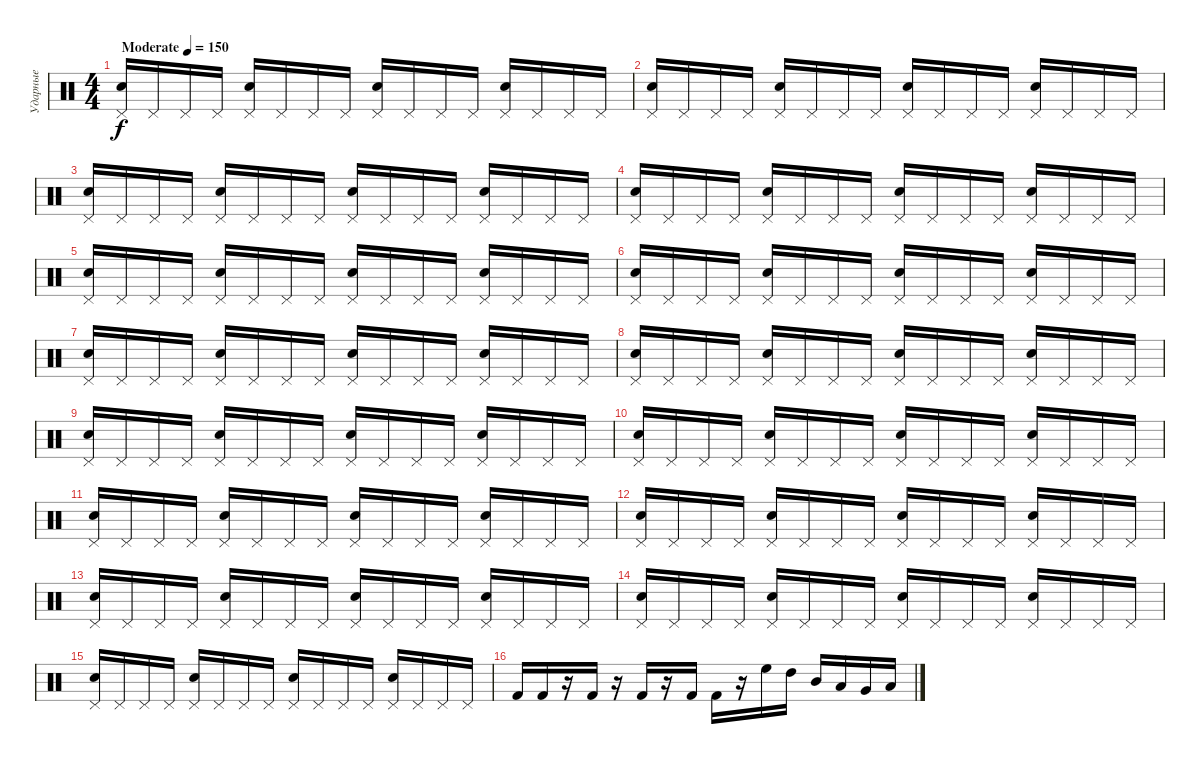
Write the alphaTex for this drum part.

\track ("Ударные" "Ударные") {instrument percussion}
\staff {score}
\articulation defaults
\ts (4 4)
\tempo (150 "Moderate")
\clef neutral
\ks c
("Pedal Hi-Hat (hit)" "Electric Snare (hit)").16{dy f} "Pedal Hi-Hat (hit)".16 "Pedal Hi-Hat (hit)".16 "Pedal Hi-Hat (hit)".16 ("Pedal Hi-Hat (hit)" "Electric Snare (hit)").16 "Pedal Hi-Hat (hit)".16 "Pedal Hi-Hat (hit)".16 "Pedal Hi-Hat (hit)".16 ("Pedal Hi-Hat (hit)" "Electric Snare (hit)").16 "Pedal Hi-Hat (hit)".16 "Pedal Hi-Hat (hit)".16 "Pedal Hi-Hat (hit)".16 ("Pedal Hi-Hat (hit)" "Electric Snare (hit)").16 "Pedal Hi-Hat (hit)".16 "Pedal Hi-Hat (hit)".16 "Pedal Hi-Hat (hit)".16 |
("Pedal Hi-Hat (hit)" "Electric Snare (hit)").16 "Pedal Hi-Hat (hit)".16 "Pedal Hi-Hat (hit)".16 "Pedal Hi-Hat (hit)".16 ("Pedal Hi-Hat (hit)" "Electric Snare (hit)").16 "Pedal Hi-Hat (hit)".16 "Pedal Hi-Hat (hit)".16 "Pedal Hi-Hat (hit)".16 ("Pedal Hi-Hat (hit)" "Electric Snare (hit)").16 "Pedal Hi-Hat (hit)".16 "Pedal Hi-Hat (hit)".16 "Pedal Hi-Hat (hit)".16 ("Pedal Hi-Hat (hit)" "Electric Snare (hit)").16 "Pedal Hi-Hat (hit)".16 "Pedal Hi-Hat (hit)".16 "Pedal Hi-Hat (hit)".16 |
("Pedal Hi-Hat (hit)" "Electric Snare (hit)").16 "Pedal Hi-Hat (hit)".16 "Pedal Hi-Hat (hit)".16 "Pedal Hi-Hat (hit)".16 ("Pedal Hi-Hat (hit)" "Electric Snare (hit)").16 "Pedal Hi-Hat (hit)".16 "Pedal Hi-Hat (hit)".16 "Pedal Hi-Hat (hit)".16 ("Pedal Hi-Hat (hit)" "Electric Snare (hit)").16 "Pedal Hi-Hat (hit)".16 "Pedal Hi-Hat (hit)".16 "Pedal Hi-Hat (hit)".16 ("Pedal Hi-Hat (hit)" "Electric Snare (hit)").16 "Pedal Hi-Hat (hit)".16 "Pedal Hi-Hat (hit)".16 "Pedal Hi-Hat (hit)".16 |
("Pedal Hi-Hat (hit)" "Electric Snare (hit)").16 "Pedal Hi-Hat (hit)".16 "Pedal Hi-Hat (hit)".16 "Pedal Hi-Hat (hit)".16 ("Pedal Hi-Hat (hit)" "Electric Snare (hit)").16 "Pedal Hi-Hat (hit)".16 "Pedal Hi-Hat (hit)".16 "Pedal Hi-Hat (hit)".16 ("Pedal Hi-Hat (hit)" "Electric Snare (hit)").16 "Pedal Hi-Hat (hit)".16 "Pedal Hi-Hat (hit)".16 "Pedal Hi-Hat (hit)".16 ("Pedal Hi-Hat (hit)" "Electric Snare (hit)").16 "Pedal Hi-Hat (hit)".16 "Pedal Hi-Hat (hit)".16 "Pedal Hi-Hat (hit)".16 |
("Pedal Hi-Hat (hit)" "Electric Snare (hit)").16 "Pedal Hi-Hat (hit)".16 "Pedal Hi-Hat (hit)".16 "Pedal Hi-Hat (hit)".16 ("Pedal Hi-Hat (hit)" "Electric Snare (hit)").16 "Pedal Hi-Hat (hit)".16 "Pedal Hi-Hat (hit)".16 "Pedal Hi-Hat (hit)".16 ("Pedal Hi-Hat (hit)" "Electric Snare (hit)").16 "Pedal Hi-Hat (hit)".16 "Pedal Hi-Hat (hit)".16 "Pedal Hi-Hat (hit)".16 ("Pedal Hi-Hat (hit)" "Electric Snare (hit)").16 "Pedal Hi-Hat (hit)".16 "Pedal Hi-Hat (hit)".16 "Pedal Hi-Hat (hit)".16 |
("Pedal Hi-Hat (hit)" "Electric Snare (hit)").16 "Pedal Hi-Hat (hit)".16 "Pedal Hi-Hat (hit)".16 "Pedal Hi-Hat (hit)".16 ("Pedal Hi-Hat (hit)" "Electric Snare (hit)").16 "Pedal Hi-Hat (hit)".16 "Pedal Hi-Hat (hit)".16 "Pedal Hi-Hat (hit)".16 ("Pedal Hi-Hat (hit)" "Electric Snare (hit)").16 "Pedal Hi-Hat (hit)".16 "Pedal Hi-Hat (hit)".16 "Pedal Hi-Hat (hit)".16 ("Pedal Hi-Hat (hit)" "Electric Snare (hit)").16 "Pedal Hi-Hat (hit)".16 "Pedal Hi-Hat (hit)".16 "Pedal Hi-Hat (hit)".16 |
("Pedal Hi-Hat (hit)" "Electric Snare (hit)").16 "Pedal Hi-Hat (hit)".16 "Pedal Hi-Hat (hit)".16 "Pedal Hi-Hat (hit)".16 ("Pedal Hi-Hat (hit)" "Electric Snare (hit)").16 "Pedal Hi-Hat (hit)".16 "Pedal Hi-Hat (hit)".16 "Pedal Hi-Hat (hit)".16 ("Pedal Hi-Hat (hit)" "Electric Snare (hit)").16 "Pedal Hi-Hat (hit)".16 "Pedal Hi-Hat (hit)".16 "Pedal Hi-Hat (hit)".16 ("Pedal Hi-Hat (hit)" "Electric Snare (hit)").16 "Pedal Hi-Hat (hit)".16 "Pedal Hi-Hat (hit)".16 "Pedal Hi-Hat (hit)".16 |
("Pedal Hi-Hat (hit)" "Electric Snare (hit)").16 "Pedal Hi-Hat (hit)".16 "Pedal Hi-Hat (hit)".16 "Pedal Hi-Hat (hit)".16 ("Pedal Hi-Hat (hit)" "Electric Snare (hit)").16 "Pedal Hi-Hat (hit)".16 "Pedal Hi-Hat (hit)".16 "Pedal Hi-Hat (hit)".16 ("Pedal Hi-Hat (hit)" "Electric Snare (hit)").16 "Pedal Hi-Hat (hit)".16 "Pedal Hi-Hat (hit)".16 "Pedal Hi-Hat (hit)".16 ("Pedal Hi-Hat (hit)" "Electric Snare (hit)").16 "Pedal Hi-Hat (hit)".16 "Pedal Hi-Hat (hit)".16 "Pedal Hi-Hat (hit)".16 |
("Pedal Hi-Hat (hit)" "Electric Snare (hit)").16 "Pedal Hi-Hat (hit)".16 "Pedal Hi-Hat (hit)".16 "Pedal Hi-Hat (hit)".16 ("Pedal Hi-Hat (hit)" "Electric Snare (hit)").16 "Pedal Hi-Hat (hit)".16 "Pedal Hi-Hat (hit)".16 "Pedal Hi-Hat (hit)".16 ("Pedal Hi-Hat (hit)" "Electric Snare (hit)").16 "Pedal Hi-Hat (hit)".16 "Pedal Hi-Hat (hit)".16 "Pedal Hi-Hat (hit)".16 ("Pedal Hi-Hat (hit)" "Electric Snare (hit)").16 "Pedal Hi-Hat (hit)".16 "Pedal Hi-Hat (hit)".16 "Pedal Hi-Hat (hit)".16 |
("Pedal Hi-Hat (hit)" "Electric Snare (hit)").16 "Pedal Hi-Hat (hit)".16 "Pedal Hi-Hat (hit)".16 "Pedal Hi-Hat (hit)".16 ("Pedal Hi-Hat (hit)" "Electric Snare (hit)").16 "Pedal Hi-Hat (hit)".16 "Pedal Hi-Hat (hit)".16 "Pedal Hi-Hat (hit)".16 ("Pedal Hi-Hat (hit)" "Electric Snare (hit)").16 "Pedal Hi-Hat (hit)".16 "Pedal Hi-Hat (hit)".16 "Pedal Hi-Hat (hit)".16 ("Pedal Hi-Hat (hit)" "Electric Snare (hit)").16 "Pedal Hi-Hat (hit)".16 "Pedal Hi-Hat (hit)".16 "Pedal Hi-Hat (hit)".16 |
("Pedal Hi-Hat (hit)" "Electric Snare (hit)").16 "Pedal Hi-Hat (hit)".16 "Pedal Hi-Hat (hit)".16 "Pedal Hi-Hat (hit)".16 ("Pedal Hi-Hat (hit)" "Electric Snare (hit)").16 "Pedal Hi-Hat (hit)".16 "Pedal Hi-Hat (hit)".16 "Pedal Hi-Hat (hit)".16 ("Pedal Hi-Hat (hit)" "Electric Snare (hit)").16 "Pedal Hi-Hat (hit)".16 "Pedal Hi-Hat (hit)".16 "Pedal Hi-Hat (hit)".16 ("Pedal Hi-Hat (hit)" "Electric Snare (hit)").16 "Pedal Hi-Hat (hit)".16 "Pedal Hi-Hat (hit)".16 "Pedal Hi-Hat (hit)".16 |
("Pedal Hi-Hat (hit)" "Electric Snare (hit)").16 "Pedal Hi-Hat (hit)".16 "Pedal Hi-Hat (hit)".16 "Pedal Hi-Hat (hit)".16 ("Pedal Hi-Hat (hit)" "Electric Snare (hit)").16 "Pedal Hi-Hat (hit)".16 "Pedal Hi-Hat (hit)".16 "Pedal Hi-Hat (hit)".16 ("Pedal Hi-Hat (hit)" "Electric Snare (hit)").16 "Pedal Hi-Hat (hit)".16 "Pedal Hi-Hat (hit)".16 "Pedal Hi-Hat (hit)".16 ("Pedal Hi-Hat (hit)" "Electric Snare (hit)").16 "Pedal Hi-Hat (hit)".16 "Pedal Hi-Hat (hit)".16 "Pedal Hi-Hat (hit)".16 |
("Pedal Hi-Hat (hit)" "Electric Snare (hit)").16 "Pedal Hi-Hat (hit)".16 "Pedal Hi-Hat (hit)".16 "Pedal Hi-Hat (hit)".16 ("Pedal Hi-Hat (hit)" "Electric Snare (hit)").16 "Pedal Hi-Hat (hit)".16 "Pedal Hi-Hat (hit)".16 "Pedal Hi-Hat (hit)".16 ("Pedal Hi-Hat (hit)" "Electric Snare (hit)").16 "Pedal Hi-Hat (hit)".16 "Pedal Hi-Hat (hit)".16 "Pedal Hi-Hat (hit)".16 ("Pedal Hi-Hat (hit)" "Electric Snare (hit)").16 "Pedal Hi-Hat (hit)".16 "Pedal Hi-Hat (hit)".16 "Pedal Hi-Hat (hit)".16 |
("Pedal Hi-Hat (hit)" "Electric Snare (hit)").16 "Pedal Hi-Hat (hit)".16 "Pedal Hi-Hat (hit)".16 "Pedal Hi-Hat (hit)".16 ("Pedal Hi-Hat (hit)" "Electric Snare (hit)").16 "Pedal Hi-Hat (hit)".16 "Pedal Hi-Hat (hit)".16 "Pedal Hi-Hat (hit)".16 ("Pedal Hi-Hat (hit)" "Electric Snare (hit)").16 "Pedal Hi-Hat (hit)".16 "Pedal Hi-Hat (hit)".16 "Pedal Hi-Hat (hit)".16 ("Pedal Hi-Hat (hit)" "Electric Snare (hit)").16 "Pedal Hi-Hat (hit)".16 "Pedal Hi-Hat (hit)".16 "Pedal Hi-Hat (hit)".16 |
("Pedal Hi-Hat (hit)" "Electric Snare (hit)").16 "Pedal Hi-Hat (hit)".16 "Pedal Hi-Hat (hit)".16 "Pedal Hi-Hat (hit)".16 ("Pedal Hi-Hat (hit)" "Electric Snare (hit)").16 "Pedal Hi-Hat (hit)".16 "Pedal Hi-Hat (hit)".16 "Pedal Hi-Hat (hit)".16 ("Pedal Hi-Hat (hit)" "Electric Snare (hit)").16 "Pedal Hi-Hat (hit)".16 "Pedal Hi-Hat (hit)".16 "Pedal Hi-Hat (hit)".16 ("Pedal Hi-Hat (hit)" "Electric Snare (hit)").16 "Pedal Hi-Hat (hit)".16 "Pedal Hi-Hat (hit)".16 "Pedal Hi-Hat (hit)".16 |
"Kick (hit) 2".16 "Kick (hit) 2".16 r.16 "Kick (hit) 2".16 r.16 "Kick (hit) 2".16 r.16 "Kick (hit) 2".16 "Kick (hit) 2".16 r.16 "High Floor Tom (hit)".16 "High Tom (hit)".16 "Mid Tom (hit)".16 "Low Tom (hit)".16 "Very Low Tom (hit)".16 "Low Floor Tom (hit)".16
